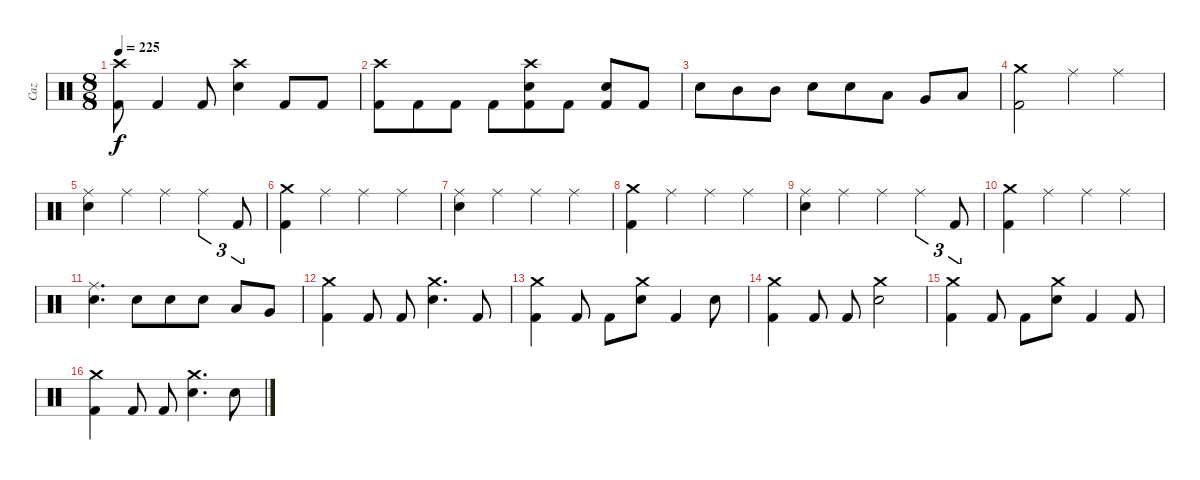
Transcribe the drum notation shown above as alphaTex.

\track ("Caz" "Caz") {instrument percussion}
\staff {score}
\articulation defaults
\ts (8 8)
\tempo 225
\clef neutral
\ks c
("Crash high (hit)" "Kick (hit) 2").8{dy f} "Kick (hit) 2".4 "Kick (hit) 2".8 ("Crash high (hit)" "Electric Snare (hit)").4 "Kick (hit) 2".8 "Kick (hit) 2".8 |
("Crash high (hit)" "Kick (hit) 2").8 "Kick (hit) 2".8 "Kick (hit) 2".8 "Kick (hit) 2".8 ("Crash high (hit)" "Electric Snare (hit)" "Kick (hit) 2").8 "Kick (hit) 2".8 ("Electric Snare (hit)" "Kick (hit) 2").8 "Kick (hit) 2".8 |
"Electric Snare (hit)".8 "Mid Tom (hit)".8 "Mid Tom (hit)".8 "Electric Snare (hit)".8 "Electric Snare (hit)".8 "Low Tom (hit)".8 "Very Low Tom (hit)".8 "Low Floor Tom (hit)".8 |
("Crash medium (hit)" "Kick (hit) 2").2 "Ride (middle)".4 "Ride (middle)".4 |
("Ride (middle)" "Electric Snare (hit)").4 "Ride (middle)".4 "Ride (middle)".4 "Ride (middle)".4{tu (3 2)} "Kick (hit) 2".8{tu (3 2)} |
("Crash medium (hit)" "Kick (hit) 2").4 "Ride (middle)".4 "Ride (middle)".4 "Ride (middle)".4 |
("Ride (middle)" "Electric Snare (hit)").4 "Ride (middle)".4 "Ride (middle)".4 "Ride (middle)".4 |
("Crash medium (hit)" "Kick (hit) 2").4 "Ride (middle)".4 "Ride (middle)".4 "Ride (middle)".4 |
("Ride (middle)" "Electric Snare (hit)").4 "Ride (middle)".4 "Ride (middle)".4 "Ride (middle)".4{tu (3 2)} "Kick (hit) 2".8{tu (3 2)} |
("Crash medium (hit)" "Kick (hit) 2").4 "Ride (middle)".4 "Ride (middle)".4 "Ride (middle)".4 |
("Ride (middle)" "Electric Snare (hit)").4{d} "Electric Snare (hit)".8 "Electric Snare (hit)".8 "Electric Snare (hit)".8 "Low Tom (hit)".8 "Very Low Tom (hit)".8 |
("Crash medium (hit)" "Kick (hit) 2").4 "Kick (hit) 2".8 "Kick (hit) 2".8 ("Crash medium (hit)" "Electric Snare (hit)").4{d} "Kick (hit) 2".8 |
("Crash medium (hit)" "Kick (hit) 2").4 "Kick (hit) 2".8 "Kick (hit) 2".8 ("Crash medium (hit)" "Electric Snare (hit)").8 "Kick (hit) 2".4 "Electric Snare (hit)".8 |
("Crash medium (hit)" "Kick (hit) 2").4 "Kick (hit) 2".8 "Kick (hit) 2".8 ("Crash medium (hit)" "Electric Snare (hit)").2 |
("Crash medium (hit)" "Kick (hit) 2").4 "Kick (hit) 2".8 "Kick (hit) 2".8 ("Crash medium (hit)" "Electric Snare (hit)").8 "Kick (hit) 2".4 "Kick (hit) 2".8 |
("Crash medium (hit)" "Kick (hit) 2").4 "Kick (hit) 2".8 "Kick (hit) 2".8 ("Crash medium (hit)" "Electric Snare (hit)").4{d} "Electric Snare (hit)".8
